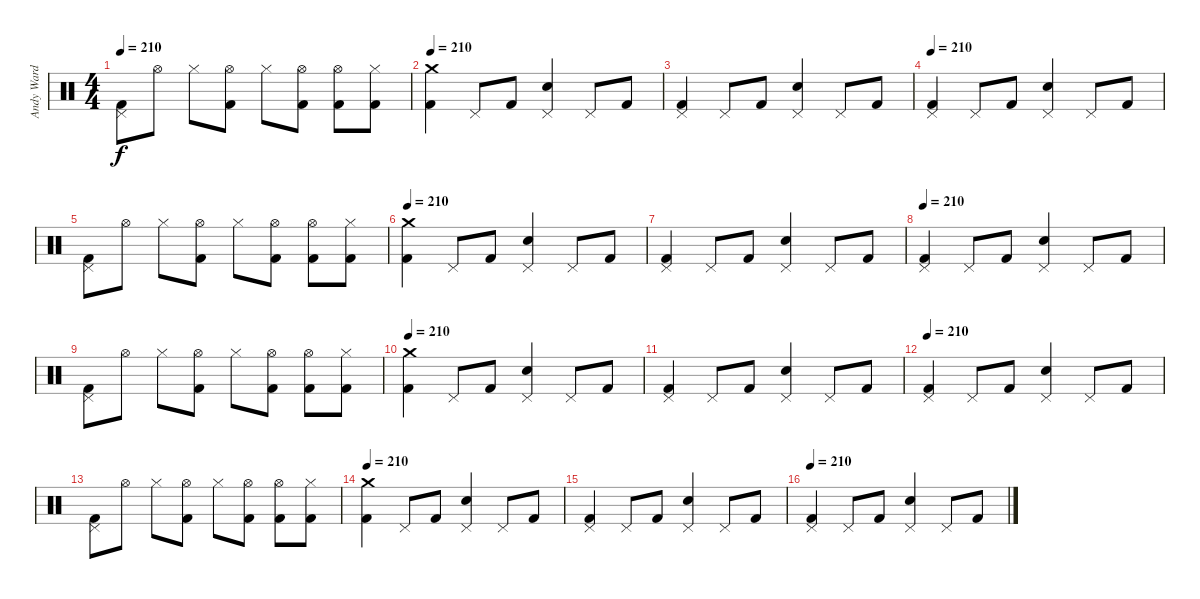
\track ("Andy Ward" "Andy Ward") {instrument percussion}
\staff {score}
\articulation defaults
\ts (4 4)
\tempo 210
\clef neutral
\ks c
("Pedal Hi-Hat (hit)" "Kick (hit) 2").8{dy f} "Hi-Hat (open)".8 "Hi-Hat (closed)".8 ("Hi-Hat (open)" "Kick (hit) 2").8 "Hi-Hat (closed)".8 ("Hi-Hat (open)" "Kick (hit) 2").8 ("Hi-Hat (open)" "Kick (hit) 2").8 ("Hi-Hat (closed)" "Kick (hit) 2").8 |
\tempo 210
("Crash medium (hit)" "Kick (hit) 2").4 "Pedal Hi-Hat (hit)".8 "Kick (hit) 2".8 ("Pedal Hi-Hat (hit)" "Electric Snare (hit)").4 "Pedal Hi-Hat (hit)".8 "Kick (hit) 2".8 |
("Pedal Hi-Hat (hit)" "Kick (hit) 2").4 "Pedal Hi-Hat (hit)".8 "Kick (hit) 2".8 ("Pedal Hi-Hat (hit)" "Electric Snare (hit)").4 "Pedal Hi-Hat (hit)".8 "Kick (hit) 2".8 |
\tempo 210
("Pedal Hi-Hat (hit)" "Kick (hit) 2").4 "Pedal Hi-Hat (hit)".8 "Kick (hit) 2".8 ("Pedal Hi-Hat (hit)" "Electric Snare (hit)").4 "Pedal Hi-Hat (hit)".8 "Kick (hit) 2".8 |
("Pedal Hi-Hat (hit)" "Kick (hit) 2").8 "Hi-Hat (open)".8 "Hi-Hat (closed)".8 ("Hi-Hat (open)" "Kick (hit) 2").8 "Hi-Hat (closed)".8 ("Hi-Hat (open)" "Kick (hit) 2").8 ("Hi-Hat (open)" "Kick (hit) 2").8 ("Hi-Hat (closed)" "Kick (hit) 2").8 |
\tempo 210
("Crash medium (hit)" "Kick (hit) 2").4 "Pedal Hi-Hat (hit)".8 "Kick (hit) 2".8 ("Pedal Hi-Hat (hit)" "Electric Snare (hit)").4 "Pedal Hi-Hat (hit)".8 "Kick (hit) 2".8 |
("Pedal Hi-Hat (hit)" "Kick (hit) 2").4 "Pedal Hi-Hat (hit)".8 "Kick (hit) 2".8 ("Pedal Hi-Hat (hit)" "Electric Snare (hit)").4 "Pedal Hi-Hat (hit)".8 "Kick (hit) 2".8 |
\tempo 210
("Pedal Hi-Hat (hit)" "Kick (hit) 2").4 "Pedal Hi-Hat (hit)".8 "Kick (hit) 2".8 ("Pedal Hi-Hat (hit)" "Electric Snare (hit)").4 "Pedal Hi-Hat (hit)".8 "Kick (hit) 2".8 |
("Pedal Hi-Hat (hit)" "Kick (hit) 2").8 "Hi-Hat (open)".8 "Hi-Hat (closed)".8 ("Hi-Hat (open)" "Kick (hit) 2").8 "Hi-Hat (closed)".8 ("Hi-Hat (open)" "Kick (hit) 2").8 ("Hi-Hat (open)" "Kick (hit) 2").8 ("Hi-Hat (closed)" "Kick (hit) 2").8 |
\tempo 210
("Crash medium (hit)" "Kick (hit) 2").4 "Pedal Hi-Hat (hit)".8 "Kick (hit) 2".8 ("Pedal Hi-Hat (hit)" "Electric Snare (hit)").4 "Pedal Hi-Hat (hit)".8 "Kick (hit) 2".8 |
("Pedal Hi-Hat (hit)" "Kick (hit) 2").4 "Pedal Hi-Hat (hit)".8 "Kick (hit) 2".8 ("Pedal Hi-Hat (hit)" "Electric Snare (hit)").4 "Pedal Hi-Hat (hit)".8 "Kick (hit) 2".8 |
\tempo 210
("Pedal Hi-Hat (hit)" "Kick (hit) 2").4 "Pedal Hi-Hat (hit)".8 "Kick (hit) 2".8 ("Pedal Hi-Hat (hit)" "Electric Snare (hit)").4 "Pedal Hi-Hat (hit)".8 "Kick (hit) 2".8 |
("Pedal Hi-Hat (hit)" "Kick (hit) 2").8 "Hi-Hat (open)".8 "Hi-Hat (closed)".8 ("Hi-Hat (open)" "Kick (hit) 2").8 "Hi-Hat (closed)".8 ("Hi-Hat (open)" "Kick (hit) 2").8 ("Hi-Hat (open)" "Kick (hit) 2").8 ("Hi-Hat (closed)" "Kick (hit) 2").8 |
\tempo 210
("Crash medium (hit)" "Kick (hit) 2").4 "Pedal Hi-Hat (hit)".8 "Kick (hit) 2".8 ("Pedal Hi-Hat (hit)" "Electric Snare (hit)").4 "Pedal Hi-Hat (hit)".8 "Kick (hit) 2".8 |
("Pedal Hi-Hat (hit)" "Kick (hit) 2").4 "Pedal Hi-Hat (hit)".8 "Kick (hit) 2".8 ("Pedal Hi-Hat (hit)" "Electric Snare (hit)").4 "Pedal Hi-Hat (hit)".8 "Kick (hit) 2".8 |
\tempo 210
("Pedal Hi-Hat (hit)" "Kick (hit) 2").4 "Pedal Hi-Hat (hit)".8 "Kick (hit) 2".8 ("Pedal Hi-Hat (hit)" "Electric Snare (hit)").4 "Pedal Hi-Hat (hit)".8 "Kick (hit) 2".8
